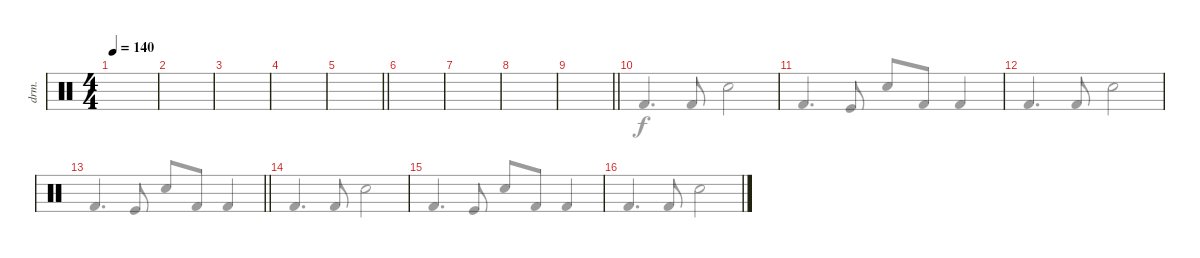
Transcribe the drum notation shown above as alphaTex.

\defaultSystemsLayout 4
\bracketExtendMode groupsimilarinstruments
\otherSystemsTrackNameOrientation horizontal
\chordDiagramsInScore
\track ("Drumkit" "drm.") {instrument percussion}
\staff {score}
\articulation defaults
\voice
\ts (4 4)
\tempo 140
\clef neutral
\ks c
|
|
|
|
\barLineRight lightlight
|
|
|
|
\barLineRight lightlight
|
|
|
|
\barLineRight lightlight
|
|
|
\voice
\clef neutral
\ks c
|
|
|
|
\barLineRight lightlight
|
|
|
|
\barLineRight lightlight
|
"Kick (hit) 2".4{d beam Up} "Kick (hit) 2".8{beam Up} "Snare (hit) 2".2{beam Down} |
"Kick (hit) 2".4{d beam Up} "Kick (hit)".8{beam Up} "Snare (hit) 2".8{beam Up} "Kick (hit) 2".8{beam Up} "Kick (hit) 2".4{beam Up} |
"Kick (hit) 2".4{d beam Up} "Kick (hit) 2".8{beam Up} "Snare (hit) 2".2{beam Down} |
\barLineRight lightlight "Kick (hit) 2".4{d beam Up} "Kick (hit)".8{beam Up} "Snare (hit) 2".8{beam Up} "Kick (hit) 2".8{beam Up} "Kick (hit) 2".4{beam Up}
|
"Kick (hit) 2".4{d beam Up} "Kick (hit) 2".8{beam Up} "Snare (hit) 2".2{beam Down} |
"Kick (hit) 2".4{d beam Up} "Kick (hit)".8{beam Up} "Snare (hit) 2".8{beam Up} "Kick (hit) 2".8{beam Up} "Kick (hit) 2".4{beam Up} |
"Kick (hit) 2".4{d beam Up} "Kick (hit) 2".8{beam Up} "Snare (hit) 2".2{beam Down}
